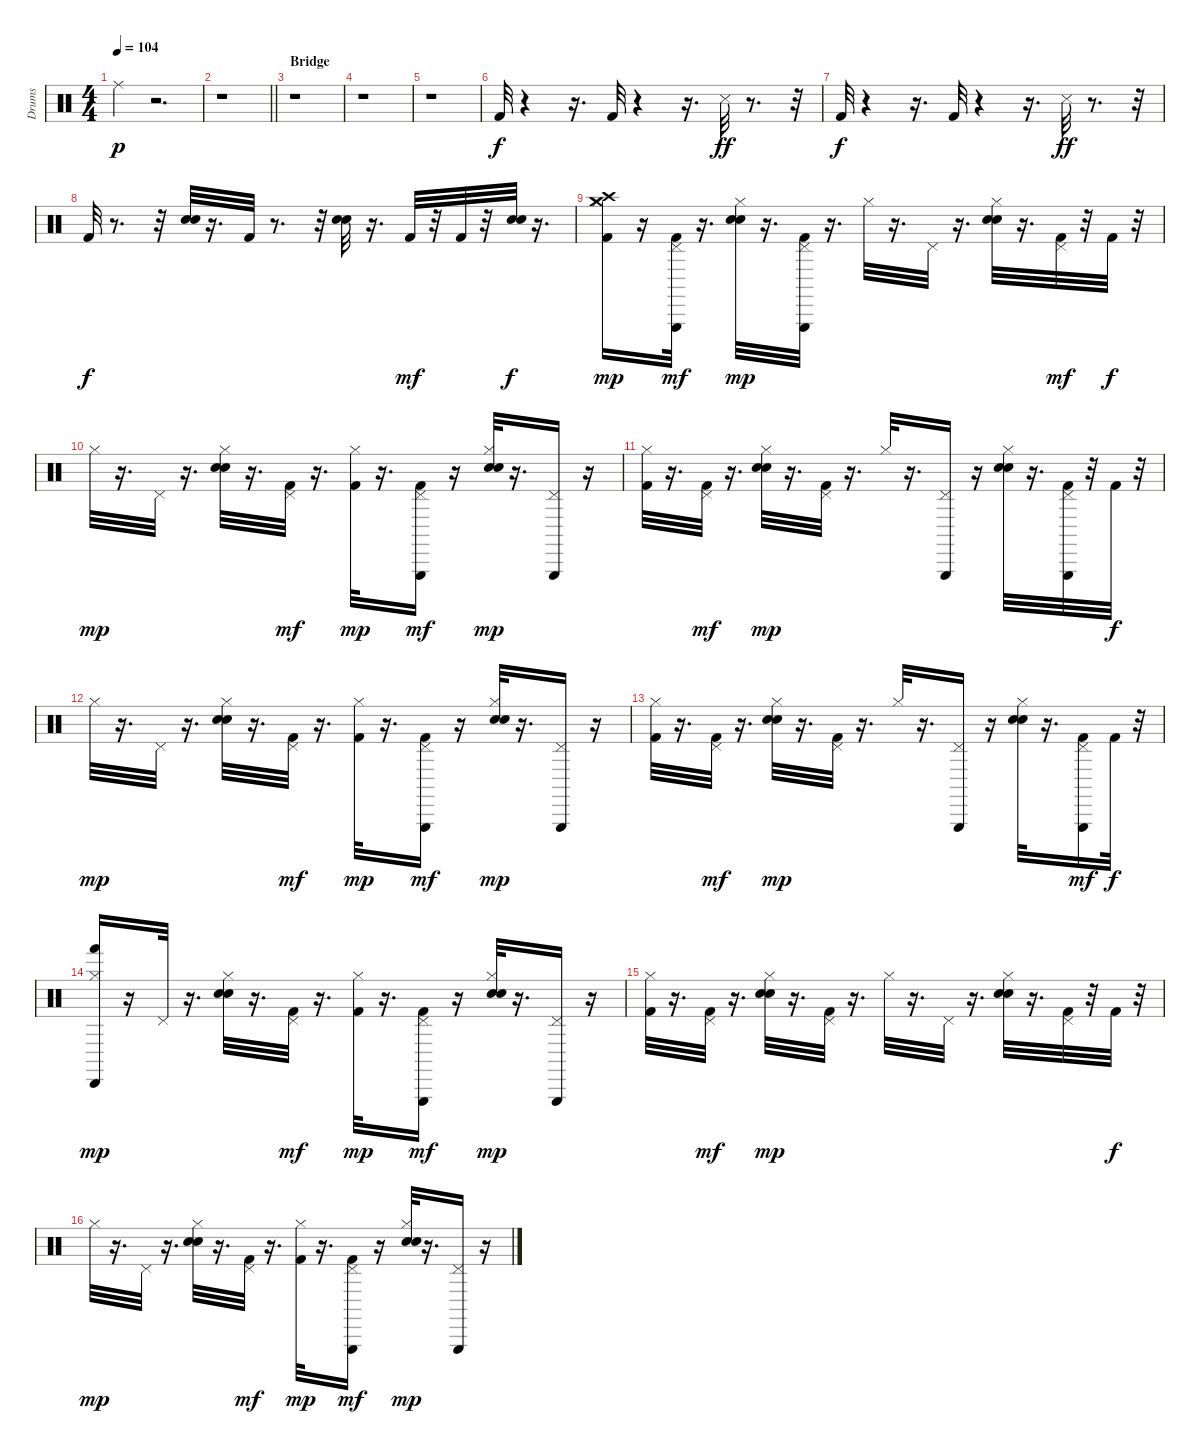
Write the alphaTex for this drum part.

\track ("Drums" "Drums") {instrument percussion}
\staff {score}
\articulation defaults
\ts (4 4)
\tempo 104
\clef neutral
\ks c "Ride (middle)".4{dy p}
r.2{d} |
\barLineRight lightlight
r.1 |
\section ("" "Bridge")
r.1 |
r.1 |
r.1 |
"Kick (hit) 2".32{dy f} r.4 r.16{d} "Kick (hit) 2".32 r.4 r.16{d} "Snare (side stick) 3".32{dy ff} r.8{d} r.32 |
"Kick (hit) 2".32{dy f} r.4 r.16{d} "Kick (hit) 2".32 r.4 r.16{d} "Snare (side stick) 3".32{dy ff} r.8{d} r.32 |
"Kick (hit) 2".32{dy f} r.8{d} r.32 ("Electric Snare (hit)" "Hand Clap (hit)").32 r.16{d} "Kick (hit) 2".32 r.8{d} r.32 ("Hand Clap (hit)" "Electric Snare (hit)").32 r.16{d} "Kick (hit) 2".32{dy mf} r.32 "Kick (hit) 2".32 r.32 ("Hand Clap (hit)" "Electric Snare (hit)").32{dy f} r.16{d} |
("Crash medium (hit)" "Crash high (hit)" "Hi-Hat (closed)" "Kick (hit) 2").16{dy mp} r.16 ("Triangle (hit)" "Pedal Hi-Hat (hit)" "Kick (hit) 2").32{dy mf} r.16{d} ("Hi-Hat (closed)" "Electric Snare (hit)" "Hand Clap (hit)").32{dy mp} r.16{d} ("Triangle (hit)" "Pedal Hi-Hat (hit)" "Kick (hit) 2").32 r.16{d} "Hi-Hat (closed)".32 r.16{d} "Pedal Hi-Hat (hit)".32 r.16{d} ("Hi-Hat (closed)" "Electric Snare (hit)" "Hand Clap (hit)").32 r.16{d} ("Pedal Hi-Hat (hit)" "Kick (hit) 2").32{dy mf} r.32 "Kick (hit) 2".32{dy f} r.32 |
"Hi-Hat (closed)".32{dy mp} r.16{d} "Pedal Hi-Hat (hit)".32 r.16{d} ("Hi-Hat (closed)" "Electric Snare (hit)" "Hand Clap (hit)").32 r.16{d} ("Pedal Hi-Hat (hit)" "Kick (hit) 2").32{dy mf} r.16{d} ("Hi-Hat (closed)" "Kick (hit) 2").32{dy mp} r.16{d} ("Triangle (hit)" "Pedal Hi-Hat (hit)" "Kick (hit) 2").16{dy mf} r.16 ("Hi-Hat (closed)" "Electric Snare (hit)" "Hand Clap (hit)").32{dy mp} r.16{d} ("Triangle (hit)" "Pedal Hi-Hat (hit)").16 r.16 |
("Hi-Hat (closed)" "Kick (hit) 2").32 r.16{d} ("Pedal Hi-Hat (hit)" "Kick (hit) 2").32{dy mf} r.16{d} ("Hi-Hat (closed)" "Electric Snare (hit)" "Hand Clap (hit)").32{dy mp} r.16{d} ("Pedal Hi-Hat (hit)" "Kick (hit) 2").32 r.16{d} "Hi-Hat (closed)".32 r.16{d} ("Triangle (hit)" "Pedal Hi-Hat (hit)").16 r.16 ("Hi-Hat (closed)" "Electric Snare (hit)" "Hand Clap (hit)").32 r.16{d} ("Triangle (hit)" "Pedal Hi-Hat (hit)" "Kick (hit) 2").32 r.32 "Kick (hit) 2".32{dy f} r.32 |
"Hi-Hat (closed)".32{dy mp} r.16{d} "Pedal Hi-Hat (hit)".32 r.16{d} ("Hi-Hat (closed)" "Electric Snare (hit)" "Hand Clap (hit)").32 r.16{d} ("Pedal Hi-Hat (hit)" "Kick (hit) 2").32{dy mf} r.16{d} ("Hi-Hat (closed)" "Kick (hit) 2").32{dy mp} r.16{d} ("Triangle (hit)" "Pedal Hi-Hat (hit)" "Kick (hit) 2").16{dy mf} r.16 ("Hi-Hat (closed)" "Electric Snare (hit)" "Hand Clap (hit)").32{dy mp} r.16{d} ("Triangle (hit)" "Pedal Hi-Hat (hit)").16 r.16 |
("Hi-Hat (closed)" "Kick (hit) 2").32 r.16{d} ("Pedal Hi-Hat (hit)" "Kick (hit) 2").32{dy mf} r.16{d} ("Hi-Hat (closed)" "Electric Snare (hit)" "Hand Clap (hit)").32{dy mp} r.16{d} ("Pedal Hi-Hat (hit)" "Kick (hit) 2").32 r.16{d} "Hi-Hat (closed)".32 r.16{d} ("Triangle (hit)" "Pedal Hi-Hat (hit)").16 r.16 ("Hi-Hat (closed)" "Electric Snare (hit)" "Hand Clap (hit)").32 r.16{d} ("Triangle (hit)" "Pedal Hi-Hat (hit)" "Kick (hit) 2").16{dy mf} "Kick (hit) 2".32{dy f} r.32 |
("Hand (hit)" "Cabasa (hit)" "Hi-Hat (closed)").16{dy mp} r.16 "Pedal Hi-Hat (hit)".32 r.16{d} ("Hi-Hat (closed)" "Electric Snare (hit)" "Hand Clap (hit)").32 r.16{d} ("Pedal Hi-Hat (hit)" "Kick (hit) 2").32{dy mf} r.16{d} ("Hi-Hat (closed)" "Kick (hit) 2").32{dy mp} r.16{d} ("Triangle (hit)" "Pedal Hi-Hat (hit)" "Kick (hit) 2").16{dy mf} r.16 ("Hi-Hat (closed)" "Electric Snare (hit)" "Hand Clap (hit)").32{dy mp} r.16{d} ("Triangle (hit)" "Pedal Hi-Hat (hit)").16 r.16 |
("Hi-Hat (closed)" "Kick (hit) 2").32 r.16{d} ("Pedal Hi-Hat (hit)" "Kick (hit) 2").32{dy mf} r.16{d} ("Hi-Hat (closed)" "Electric Snare (hit)" "Hand Clap (hit)").32{dy mp} r.16{d} ("Pedal Hi-Hat (hit)" "Kick (hit) 2").32 r.16{d} "Hi-Hat (closed)".32 r.16{d} "Pedal Hi-Hat (hit)".32 r.16{d} ("Hi-Hat (closed)" "Electric Snare (hit)" "Hand Clap (hit)").32 r.16{d} ("Pedal Hi-Hat (hit)" "Kick (hit) 2").32 r.32 "Kick (hit) 2".32{dy f} r.32 |
"Hi-Hat (closed)".32{dy mp} r.16{d} "Pedal Hi-Hat (hit)".32 r.16{d} ("Hi-Hat (closed)" "Electric Snare (hit)" "Hand Clap (hit)").32 r.16{d} ("Pedal Hi-Hat (hit)" "Kick (hit) 2").32{dy mf} r.16{d} ("Hi-Hat (closed)" "Kick (hit) 2").32{dy mp} r.16{d} ("Triangle (hit)" "Pedal Hi-Hat (hit)" "Kick (hit) 2").16{dy mf} r.16 ("Hi-Hat (closed)" "Electric Snare (hit)" "Hand Clap (hit)").32{dy mp} r.16{d} ("Triangle (hit)" "Pedal Hi-Hat (hit)").16 r.16
